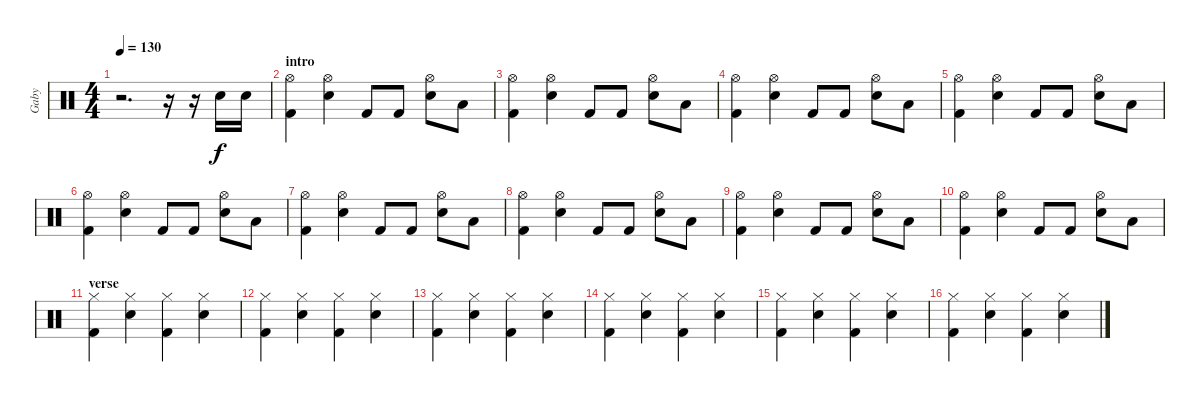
\track ("Gaby" "Gaby") {instrument percussion}
\staff {score}
\articulation defaults
\ts (4 4)
\tempo 130
\clef neutral
\ks c
r.2{d dy f} r.16 r.16 "Electric Snare (hit)".16 "Electric Snare (hit)".16 |
\section ("" "intro")
("Hi-Hat (open)" "Kick (hit) 2").4 ("Hi-Hat (open)" "Electric Snare (hit)").4 "Kick (hit) 2".8 "Kick (hit) 2".8 ("Hi-Hat (open)" "Electric Snare (hit)").8 "Low Floor Tom (hit)".8 |
("Hi-Hat (open)" "Kick (hit) 2").4 ("Hi-Hat (open)" "Electric Snare (hit)").4 "Kick (hit) 2".8 "Kick (hit) 2".8 ("Hi-Hat (open)" "Electric Snare (hit)").8 "Low Floor Tom (hit)".8 |
("Hi-Hat (open)" "Kick (hit) 2").4 ("Hi-Hat (open)" "Electric Snare (hit)").4 "Kick (hit) 2".8 "Kick (hit) 2".8 ("Hi-Hat (open)" "Electric Snare (hit)").8 "Low Floor Tom (hit)".8 |
("Hi-Hat (open)" "Kick (hit) 2").4 ("Hi-Hat (open)" "Electric Snare (hit)").4 "Kick (hit) 2".8 "Kick (hit) 2".8 ("Hi-Hat (open)" "Electric Snare (hit)").8 "Low Floor Tom (hit)".8 |
("Hi-Hat (open)" "Kick (hit) 2").4 ("Hi-Hat (open)" "Electric Snare (hit)").4 "Kick (hit) 2".8 "Kick (hit) 2".8 ("Hi-Hat (open)" "Electric Snare (hit)").8 "Low Floor Tom (hit)".8 |
("Hi-Hat (open)" "Kick (hit) 2").4 ("Hi-Hat (open)" "Electric Snare (hit)").4 "Kick (hit) 2".8 "Kick (hit) 2".8 ("Hi-Hat (open)" "Electric Snare (hit)").8 "Low Floor Tom (hit)".8 |
("Hi-Hat (open)" "Kick (hit) 2").4 ("Hi-Hat (open)" "Electric Snare (hit)").4 "Kick (hit) 2".8 "Kick (hit) 2".8 ("Hi-Hat (open)" "Electric Snare (hit)").8 "Low Floor Tom (hit)".8 |
("Hi-Hat (open)" "Kick (hit) 2").4 ("Hi-Hat (open)" "Electric Snare (hit)").4 "Kick (hit) 2".8 "Kick (hit) 2".8 ("Hi-Hat (open)" "Electric Snare (hit)").8 "Low Floor Tom (hit)".8 |
("Hi-Hat (open)" "Kick (hit) 2").4 ("Hi-Hat (open)" "Electric Snare (hit)").4 "Kick (hit) 2".8 "Kick (hit) 2".8 ("Hi-Hat (open)" "Electric Snare (hit)").8 "Low Floor Tom (hit)".8 |
\section ("" "verse")
("Hi-Hat (closed)" "Kick (hit) 2").4 ("Hi-Hat (closed)" "Electric Snare (hit)").4 ("Hi-Hat (closed)" "Kick (hit) 2").4 ("Hi-Hat (closed)" "Electric Snare (hit)").4 |
("Hi-Hat (closed)" "Kick (hit) 2").4 ("Hi-Hat (closed)" "Electric Snare (hit)").4 ("Hi-Hat (closed)" "Kick (hit) 2").4 ("Hi-Hat (closed)" "Electric Snare (hit)").4 |
("Hi-Hat (closed)" "Kick (hit) 2").4 ("Hi-Hat (closed)" "Electric Snare (hit)").4 ("Hi-Hat (closed)" "Kick (hit) 2").4 ("Hi-Hat (closed)" "Electric Snare (hit)").4 |
("Hi-Hat (closed)" "Kick (hit) 2").4 ("Hi-Hat (closed)" "Electric Snare (hit)").4 ("Hi-Hat (closed)" "Kick (hit) 2").4 ("Hi-Hat (closed)" "Electric Snare (hit)").4 |
("Hi-Hat (closed)" "Kick (hit) 2").4 ("Hi-Hat (closed)" "Electric Snare (hit)").4 ("Hi-Hat (closed)" "Kick (hit) 2").4 ("Hi-Hat (closed)" "Electric Snare (hit)").4 |
("Hi-Hat (closed)" "Kick (hit) 2").4 ("Hi-Hat (closed)" "Electric Snare (hit)").4 ("Hi-Hat (closed)" "Kick (hit) 2").4 ("Hi-Hat (closed)" "Electric Snare (hit)").4
